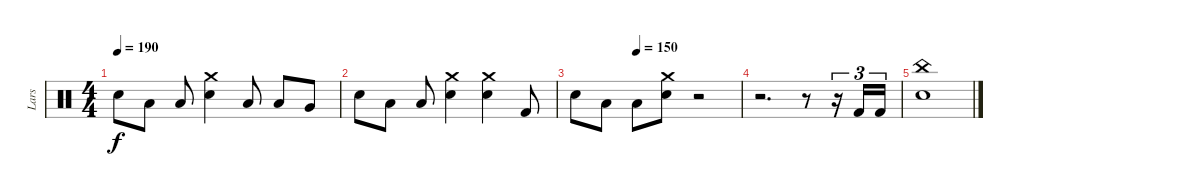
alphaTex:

\track ("Lars" "Lars") {instrument percussion}
\staff {score}
\articulation defaults
\ts (4 4)
\tempo 190
\clef neutral
\ks c "Snare (hit) 2".8{dy f} "Low Tom (hit)".8 "Low Tom (hit)".8
("Crash medium (hit)" "Snare (hit) 2").4 "Low Tom (hit)".8 "Low Tom (hit)".8 "Very Low Tom (hit)".8 |
"Snare (hit) 2".8 "Low Tom (hit)".8 "Low Tom (hit)".8 ("Crash medium (hit)" "Snare (hit) 2").4 ("Crash medium (hit)" "Snare (hit) 2").4 "Kick (hit) 2".8 |
\tempo (150 0.375)
"Snare (hit) 2".8 "Low Tom (hit)".8 "Low Tom (hit)".8 ("Crash medium (hit)" "Snare (hit) 2").8 r.2 |
r.2{d} r.8 r.16{tu (3 2)} "Kick (hit) 2".16{tu (3 2)} "Kick (hit) 2".16{tu (3 2)} |
("China (hit)" "Snare (hit) 2").1
